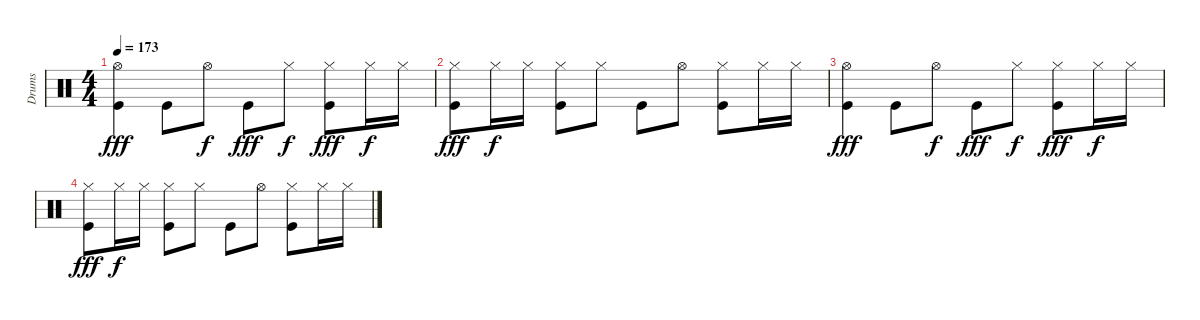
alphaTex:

\track ("Drums" "Drums") {instrument percussion}
\staff {score}
\articulation defaults
\ts (4 4)
\tempo 173
\clef neutral
\ks c
("Kick (hit)" "Hi-Hat (open)").4{dy fff} "Kick (hit)".8 "Hi-Hat (open)".8{dy f} "Kick (hit)".8{dy fff} "Hi-Hat (closed)".8{dy f} ("Kick (hit)" "Hi-Hat (closed)").8{dy fff} "Hi-Hat (closed)".16{dy f} "Hi-Hat (closed)".16 |
("Kick (hit)" "Hi-Hat (closed)").8{dy fff} "Hi-Hat (closed)".16{dy f} "Hi-Hat (closed)".16 ("Kick (hit)" "Hi-Hat (closed)").8 "Hi-Hat (closed)".8 "Kick (hit)".8 "Hi-Hat (open)".8 ("Kick (hit)" "Hi-Hat (closed)").8 "Hi-Hat (closed)".16 "Hi-Hat (closed)".16 |
("Kick (hit)" "Hi-Hat (open)").4{dy fff} "Kick (hit)".8 "Hi-Hat (open)".8{dy f} "Kick (hit)".8{dy fff} "Hi-Hat (closed)".8{dy f} ("Kick (hit)" "Hi-Hat (closed)").8{dy fff} "Hi-Hat (closed)".16{dy f} "Hi-Hat (closed)".16 |
("Kick (hit)" "Hi-Hat (closed)").8{dy fff} "Hi-Hat (closed)".16{dy f} "Hi-Hat (closed)".16 ("Kick (hit)" "Hi-Hat (closed)").8 "Hi-Hat (closed)".8 "Kick (hit)".8 "Hi-Hat (open)".8 ("Kick (hit)" "Hi-Hat (closed)").8 "Hi-Hat (closed)".16 "Hi-Hat (closed)".16
